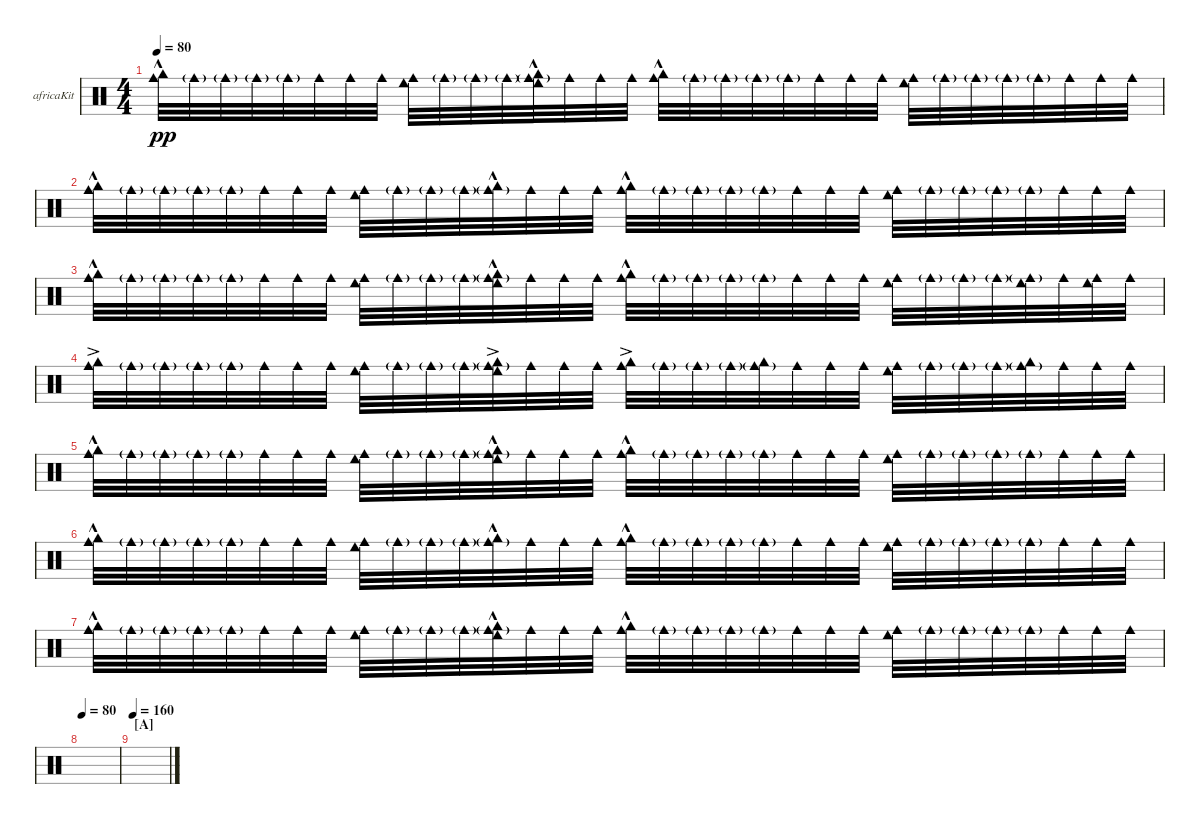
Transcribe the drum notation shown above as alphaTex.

\defaultSystemsLayout 4
\bracketExtendMode groupsimilarinstruments
\firstSystemTrackNameOrientation horizontal
\otherSystemsTrackNameOrientation horizontal
\track ("Kit-Africa" "africaKit") {instrument percussion}
\staff {score}
\articulation defaults
\ts (4 4)
\tempo 80
\clef neutral
\scale
0.333333
\ks c
("Cowbell medium (hit)" "Cowbell high (hit)"{hac}).32{dy pp} "Cowbell medium (hit)"{g}.32 "Cowbell medium (hit)"{g}.32 "Cowbell medium (hit)"{g}.32 "Cowbell medium (hit)"{g}.32 "Cowbell medium (hit)".32 "Cowbell medium (hit)".32 "Cowbell medium (hit)".32 ("Cowbell medium (hit)" "Cowbell low (hit)").32 "Cowbell medium (hit)"{g}.32 "Cowbell medium (hit)"{g}.32 "Cowbell medium (hit)"{g}.32 ("Cowbell medium (hit)"{g} "Cowbell high (hit)"{hac} "Cowbell low (hit)").32 "Cowbell medium (hit)".32 "Cowbell medium (hit)".32 "Cowbell medium (hit)".32 ("Cowbell medium (hit)" "Cowbell high (hit)"{hac}).32 "Cowbell medium (hit)"{g}.32 "Cowbell medium (hit)"{g}.32 "Cowbell medium (hit)"{g}.32 "Cowbell medium (hit)"{g}.32 "Cowbell medium (hit)".32 "Cowbell medium (hit)".32 "Cowbell medium (hit)".32 ("Cowbell medium (hit)" "Cowbell low (hit)").32 "Cowbell medium (hit)"{g}.32 "Cowbell medium (hit)"{g}.32 "Cowbell medium (hit)"{g}.32 "Cowbell medium (hit)"{g}.32 "Cowbell medium (hit)".32 "Cowbell medium (hit)".32 "Cowbell medium (hit)".32 |
\scale
0.333333 ("Cowbell medium (hit)" "Cowbell high (hit)"{hac}).32 "Cowbell medium (hit)"{g}.32 "Cowbell medium (hit)"{g}.32 "Cowbell medium (hit)"{g}.32 "Cowbell medium (hit)"{g}.32 "Cowbell medium (hit)".32 "Cowbell medium (hit)".32 "Cowbell medium (hit)".32 ("Cowbell medium (hit)" "Cowbell low (hit)").32 "Cowbell medium (hit)"{g}.32 "Cowbell medium (hit)"{g}.32 "Cowbell medium (hit)"{g}.32 ("Cowbell medium (hit)"{g} "Cowbell high (hit)"{hac}).32 "Cowbell medium (hit)".32 "Cowbell medium (hit)".32 "Cowbell medium (hit)".32 ("Cowbell medium (hit)" "Cowbell high (hit)"{hac}).32 "Cowbell medium (hit)"{g}.32 "Cowbell medium (hit)"{g}.32 "Cowbell medium (hit)"{g}.32 "Cowbell medium (hit)"{g}.32 "Cowbell medium (hit)".32 "Cowbell medium (hit)".32 "Cowbell medium (hit)".32 ("Cowbell medium (hit)" "Cowbell low (hit)").32 "Cowbell medium (hit)"{g}.32 "Cowbell medium (hit)"{g}.32 "Cowbell medium (hit)"{g}.32 "Cowbell medium (hit)"{g}.32 "Cowbell medium (hit)".32 "Cowbell medium (hit)".32 "Cowbell medium (hit)".32 |
\scale
0.333333 ("Cowbell medium (hit)" "Cowbell high (hit)"{hac}).32 "Cowbell medium (hit)"{g}.32 "Cowbell medium (hit)"{g}.32 "Cowbell medium (hit)"{g}.32 "Cowbell medium (hit)"{g}.32 "Cowbell medium (hit)".32 "Cowbell medium (hit)".32 "Cowbell medium (hit)".32 ("Cowbell medium (hit)" "Cowbell low (hit)").32 "Cowbell medium (hit)"{g}.32 "Cowbell medium (hit)"{g}.32 "Cowbell medium (hit)"{g}.32 ("Cowbell medium (hit)"{g} "Cowbell high (hit)"{hac} "Cowbell low (hit)").32 "Cowbell medium (hit)".32 "Cowbell medium (hit)".32 "Cowbell medium (hit)".32 ("Cowbell medium (hit)" "Cowbell high (hit)"{hac}).32 "Cowbell medium (hit)"{g}.32 "Cowbell medium (hit)"{g}.32 "Cowbell medium (hit)"{g}.32 "Cowbell medium (hit)"{g}.32 "Cowbell medium (hit)".32 "Cowbell medium (hit)".32 "Cowbell medium (hit)".32 ("Cowbell medium (hit)" "Cowbell low (hit)").32 "Cowbell medium (hit)"{g}.32 "Cowbell medium (hit)"{g}.32 "Cowbell medium (hit)"{g}.32 ("Cowbell medium (hit)"{g} "Cowbell low (hit)").32 "Cowbell medium (hit)".32 ("Cowbell medium (hit)" "Cowbell low (hit)").32 "Cowbell medium (hit)".32 |
\scale
0.333333 ("Cowbell medium (hit)" "Cowbell high (hit)"{ac}).32 "Cowbell medium (hit)"{g}.32 "Cowbell medium (hit)"{g}.32 "Cowbell medium (hit)"{g}.32 "Cowbell medium (hit)"{g}.32 "Cowbell medium (hit)".32 "Cowbell medium (hit)".32 "Cowbell medium (hit)".32 ("Cowbell medium (hit)" "Cowbell low (hit)").32 "Cowbell medium (hit)"{g}.32 "Cowbell medium (hit)"{g}.32 "Cowbell medium (hit)"{g}.32 ("Cowbell medium (hit)"{g} "Cowbell high (hit)"{ac} "Cowbell low (hit)").32 "Cowbell medium (hit)".32 "Cowbell medium (hit)".32 "Cowbell medium (hit)".32 ("Cowbell medium (hit)" "Cowbell high (hit)"{ac}).32 "Cowbell medium (hit)"{g}.32 "Cowbell medium (hit)"{g}.32 "Cowbell medium (hit)"{g}.32 ("Cowbell medium (hit)"{g} "Cowbell high (hit)").32 "Cowbell medium (hit)".32 "Cowbell medium (hit)".32 "Cowbell medium (hit)".32 ("Cowbell medium (hit)" "Cowbell low (hit)").32 "Cowbell medium (hit)"{g}.32 "Cowbell medium (hit)"{g}.32 "Cowbell medium (hit)"{g}.32 ("Cowbell medium (hit)"{g} "Cowbell high (hit)").32 "Cowbell medium (hit)".32 "Cowbell medium (hit)".32 "Cowbell medium (hit)".32 |
\scale
0.333333 ("Cowbell medium (hit)" "Cowbell high (hit)"{hac}).32 "Cowbell medium (hit)"{g}.32 "Cowbell medium (hit)"{g}.32 "Cowbell medium (hit)"{g}.32 "Cowbell medium (hit)"{g}.32 "Cowbell medium (hit)".32 "Cowbell medium (hit)".32 "Cowbell medium (hit)".32 ("Cowbell medium (hit)" "Cowbell low (hit)").32 "Cowbell medium (hit)"{g}.32 "Cowbell medium (hit)"{g}.32 "Cowbell medium (hit)"{g}.32 ("Cowbell medium (hit)"{g} "Cowbell high (hit)"{hac} "Cowbell low (hit)").32 "Cowbell medium (hit)".32 "Cowbell medium (hit)".32 "Cowbell medium (hit)".32 ("Cowbell medium (hit)" "Cowbell high (hit)"{hac}).32 "Cowbell medium (hit)"{g}.32 "Cowbell medium (hit)"{g}.32 "Cowbell medium (hit)"{g}.32 "Cowbell medium (hit)"{g}.32 "Cowbell medium (hit)".32 "Cowbell medium (hit)".32 "Cowbell medium (hit)".32 ("Cowbell medium (hit)" "Cowbell low (hit)").32 "Cowbell medium (hit)"{g}.32 "Cowbell medium (hit)"{g}.32 "Cowbell medium (hit)"{g}.32 "Cowbell medium (hit)"{g}.32 "Cowbell medium (hit)".32 "Cowbell medium (hit)".32 "Cowbell medium (hit)".32 |
\scale
0.333333 ("Cowbell medium (hit)" "Cowbell high (hit)"{hac}).32 "Cowbell medium (hit)"{g}.32 "Cowbell medium (hit)"{g}.32 "Cowbell medium (hit)"{g}.32 "Cowbell medium (hit)"{g}.32 "Cowbell medium (hit)".32 "Cowbell medium (hit)".32 "Cowbell medium (hit)".32 ("Cowbell medium (hit)" "Cowbell low (hit)").32 "Cowbell medium (hit)"{g}.32 "Cowbell medium (hit)"{g}.32 "Cowbell medium (hit)"{g}.32 ("Cowbell medium (hit)"{g} "Cowbell high (hit)"{hac}).32 "Cowbell medium (hit)".32 "Cowbell medium (hit)".32 "Cowbell medium (hit)".32 ("Cowbell medium (hit)" "Cowbell high (hit)"{hac}).32 "Cowbell medium (hit)"{g}.32 "Cowbell medium (hit)"{g}.32 "Cowbell medium (hit)"{g}.32 "Cowbell medium (hit)"{g}.32 "Cowbell medium (hit)".32 "Cowbell medium (hit)".32 "Cowbell medium (hit)".32 ("Cowbell medium (hit)" "Cowbell low (hit)").32 "Cowbell medium (hit)"{g}.32 "Cowbell medium (hit)"{g}.32 "Cowbell medium (hit)"{g}.32 "Cowbell medium (hit)"{g}.32 "Cowbell medium (hit)".32 "Cowbell medium (hit)".32 "Cowbell medium (hit)".32 |
\scale
0.333333 ("Cowbell medium (hit)" "Cowbell high (hit)"{hac}).32 "Cowbell medium (hit)"{g}.32 "Cowbell medium (hit)"{g}.32 "Cowbell medium (hit)"{g}.32 "Cowbell medium (hit)"{g}.32 "Cowbell medium (hit)".32 "Cowbell medium (hit)".32 "Cowbell medium (hit)".32 ("Cowbell medium (hit)" "Cowbell low (hit)").32 "Cowbell medium (hit)"{g}.32 "Cowbell medium (hit)"{g}.32 "Cowbell medium (hit)"{g}.32 ("Cowbell medium (hit)"{g} "Cowbell high (hit)"{hac} "Cowbell low (hit)").32 "Cowbell medium (hit)".32 "Cowbell medium (hit)".32 "Cowbell medium (hit)".32 ("Cowbell medium (hit)" "Cowbell high (hit)"{hac}).32 "Cowbell medium (hit)"{g}.32 "Cowbell medium (hit)"{g}.32 "Cowbell medium (hit)"{g}.32 "Cowbell medium (hit)"{g}.32 "Cowbell medium (hit)".32 "Cowbell medium (hit)".32 "Cowbell medium (hit)".32 ("Cowbell medium (hit)" "Cowbell low (hit)").32 "Cowbell medium (hit)"{g}.32 "Cowbell medium (hit)"{g}.32 "Cowbell medium (hit)"{g}.32 "Cowbell medium (hit)"{g}.32 "Cowbell medium (hit)".32 "Cowbell medium (hit)".32 "Cowbell medium (hit)".32 |
\tempo 80
\scale
0.333333 |
\section ("A" "")
\tempo 160
\scale
0.333333 |
\scale
0.333333 |
\scale
0.333333 |
\scale
0.333333 |
\scale
0.333333 |
\scale
0.333333 |
\scale
0.333333 |
\scale
0.333333
